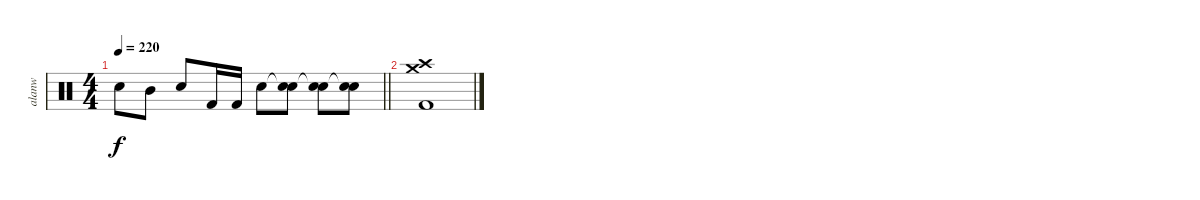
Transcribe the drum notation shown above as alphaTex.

\track ("alanw" "alanw") {instrument percussion}
\staff {score}
\articulation defaults
\ts (4 4)
\tempo 220
\clef neutral
\barLineRight lightlight
\ks c "Electric Snare (hit)".8{dy f} "Mid Tom (hit)".8 "Electric Snare (hit)".8 "Kick (hit) 2".16 "Kick (hit) 2".16 "Electric Snare (hit)".8
("Snare (hit)"{t} "Electric Snare (hit)").8 ("Snare (hit)"{t} "Electric Snare (hit)").8 ("Snare (hit)"{t} "Electric Snare (hit)").8 |
("Crash high (hit)" "Crash medium (hit)" "Kick (hit) 2").1
